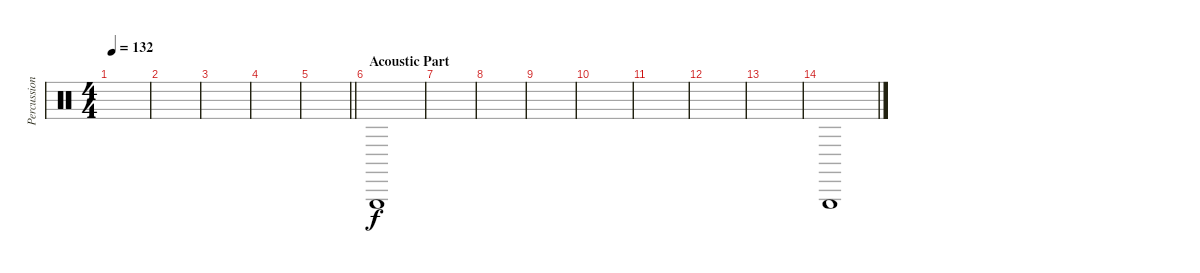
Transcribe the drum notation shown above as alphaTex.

\track ("Percussion / FX" "Percussion") {instrument percussion}
\staff {score}
\articulation defaults
\ts (4 4)
\tempo 132
\clef neutral
\ks c
|
|
|
|
\barLineRight lightlight
|
\section ("" "Acoustic Part")
"Triangle (hit)".1 |
|
|
|
|
|
|
|
"Triangle (hit)".1
